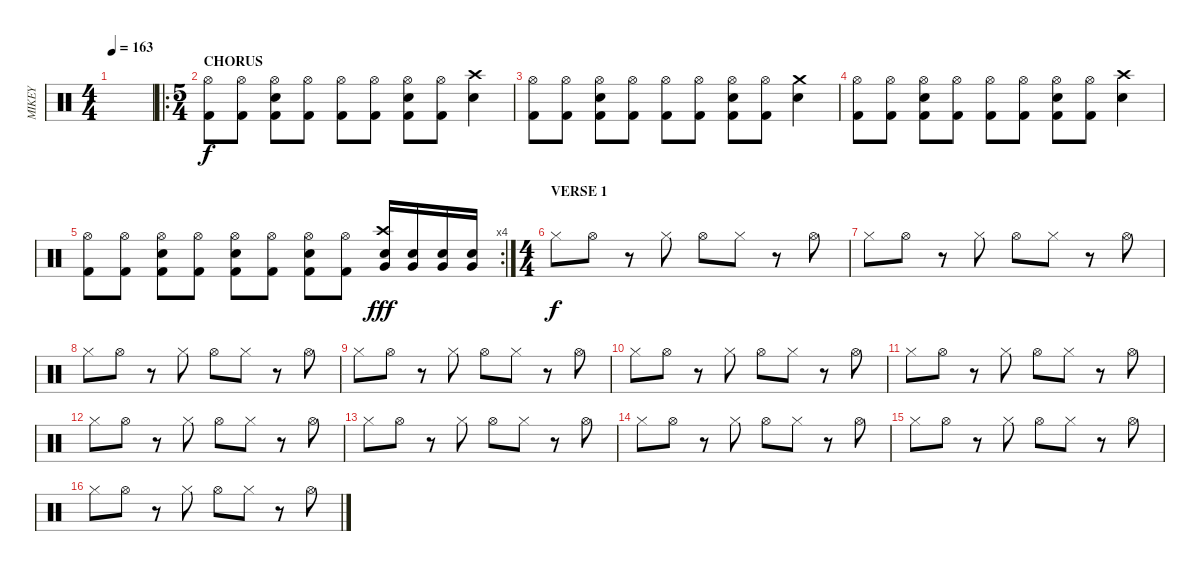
\track ("MIKEY" "MIKEY") {instrument percussion}
\staff {score}
\articulation defaults
\ts (4 4)
\tempo 163
\clef neutral
\ks c
|
\ro
\ts (5 4)
\section ("" "CHORUS")
("Hi-Hat (open)" "Kick (hit) 2").8 ("Hi-Hat (open)" "Kick (hit) 2").8 ("Snare (hit) 2" "Hi-Hat (open)" "Kick (hit) 2").8 ("Hi-Hat (open)" "Kick (hit) 2").8 ("Hi-Hat (open)" "Kick (hit) 2").8 ("Hi-Hat (open)" "Kick (hit) 2").8 ("Snare (hit) 2" "Hi-Hat (open)" "Kick (hit) 2").8 ("Hi-Hat (open)" "Kick (hit) 2").8 ("Snare (hit) 2" "Crash high (hit)").4 |
("Hi-Hat (open)" "Kick (hit) 2").8 ("Hi-Hat (open)" "Kick (hit) 2").8 ("Snare (hit) 2" "Hi-Hat (open)" "Kick (hit) 2").8 ("Hi-Hat (open)" "Kick (hit) 2").8 ("Hi-Hat (open)" "Kick (hit) 2").8 ("Hi-Hat (open)" "Kick (hit) 2").8 ("Snare (hit) 2" "Hi-Hat (open)" "Kick (hit) 2").8 ("Hi-Hat (open)" "Kick (hit) 2").8 ("Snare (hit) 2" "Crash medium (hit)").4 |
("Hi-Hat (open)" "Kick (hit) 2").8 ("Hi-Hat (open)" "Kick (hit) 2").8 ("Snare (hit) 2" "Hi-Hat (open)" "Kick (hit) 2").8 ("Hi-Hat (open)" "Kick (hit) 2").8 ("Hi-Hat (open)" "Kick (hit) 2").8 ("Hi-Hat (open)" "Kick (hit) 2").8 ("Snare (hit) 2" "Hi-Hat (open)" "Kick (hit) 2").8 ("Hi-Hat (open)" "Kick (hit) 2").8 ("Snare (hit) 2" "Crash high (hit)").4 |
\rc 4
("Hi-Hat (open)" "Kick (hit) 2").8 ("Hi-Hat (open)" "Kick (hit) 2").8 ("Snare (hit) 2" "Hi-Hat (open)" "Kick (hit) 2").8 ("Hi-Hat (open)" "Kick (hit) 2").8 ("Snare (hit) 2" "Hi-Hat (open)" "Kick (hit) 2").8 ("Hi-Hat (open)" "Kick (hit) 2").8 ("Snare (hit) 2" "Hi-Hat (open)" "Kick (hit) 2").8 ("Hi-Hat (open)" "Kick (hit) 2").8 ("Very Low Tom (hit)" "Snare (hit) 2" "Crash high (hit)").16{dy fff} ("Very Low Tom (hit)" "Snare (hit) 2").16 ("Very Low Tom (hit)" "Snare (hit) 2").16 ("Very Low Tom (hit)" "Snare (hit) 2").16 |
\ts (4 4)
\section ("" "VERSE 1")
"Hi-Hat (closed)".8{dy f} "Hi-Hat (open)".8 r.8 "Hi-Hat (closed)".8 "Hi-Hat (open)".8 "Hi-Hat (closed)".8 r.8 "Hi-Hat (open)".8 |
"Hi-Hat (closed)".8 "Hi-Hat (open)".8 r.8 "Hi-Hat (closed)".8 "Hi-Hat (open)".8 "Hi-Hat (closed)".8 r.8 "Hi-Hat (open)".8 |
"Hi-Hat (closed)".8 "Hi-Hat (open)".8 r.8 "Hi-Hat (closed)".8 "Hi-Hat (open)".8 "Hi-Hat (closed)".8 r.8 "Hi-Hat (open)".8 |
"Hi-Hat (closed)".8 "Hi-Hat (open)".8 r.8 "Hi-Hat (closed)".8 "Hi-Hat (open)".8 "Hi-Hat (closed)".8 r.8 "Hi-Hat (open)".8 |
"Hi-Hat (closed)".8 "Hi-Hat (open)".8 r.8 "Hi-Hat (closed)".8 "Hi-Hat (open)".8 "Hi-Hat (closed)".8 r.8 "Hi-Hat (open)".8 |
"Hi-Hat (closed)".8 "Hi-Hat (open)".8 r.8 "Hi-Hat (closed)".8 "Hi-Hat (open)".8 "Hi-Hat (closed)".8 r.8 "Hi-Hat (open)".8 |
"Hi-Hat (closed)".8 "Hi-Hat (open)".8 r.8 "Hi-Hat (closed)".8 "Hi-Hat (open)".8 "Hi-Hat (closed)".8 r.8 "Hi-Hat (open)".8 |
"Hi-Hat (closed)".8 "Hi-Hat (open)".8 r.8 "Hi-Hat (closed)".8 "Hi-Hat (open)".8 "Hi-Hat (closed)".8 r.8 "Hi-Hat (open)".8 |
"Hi-Hat (closed)".8 "Hi-Hat (open)".8 r.8 "Hi-Hat (closed)".8 "Hi-Hat (open)".8 "Hi-Hat (closed)".8 r.8 "Hi-Hat (open)".8 |
"Hi-Hat (closed)".8 "Hi-Hat (open)".8 r.8 "Hi-Hat (closed)".8 "Hi-Hat (open)".8 "Hi-Hat (closed)".8 r.8 "Hi-Hat (open)".8 |
"Hi-Hat (closed)".8 "Hi-Hat (open)".8 r.8 "Hi-Hat (closed)".8 "Hi-Hat (open)".8 "Hi-Hat (closed)".8 r.8 "Hi-Hat (open)".8
